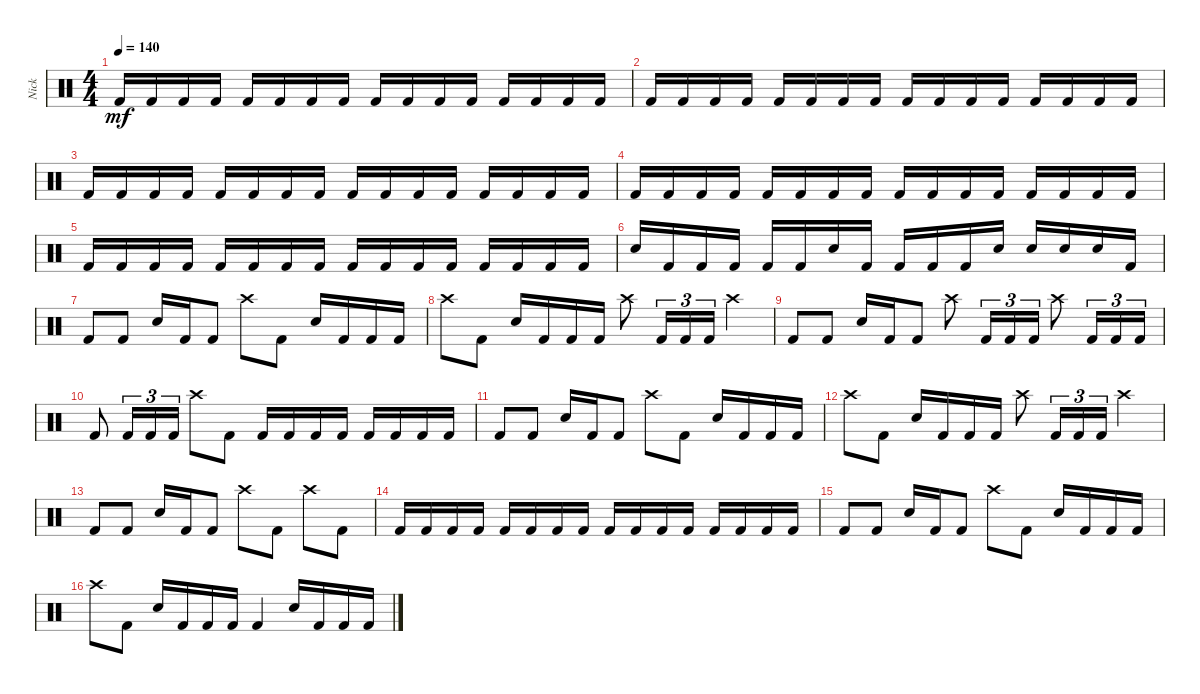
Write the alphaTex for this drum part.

\track ("Nick " "Nick ") {instrument percussion}
\staff {score}
\articulation defaults
\ts (4 4)
\tempo 140
\clef neutral
\ks c "Kick (hit) 2".16{dy mf} "Kick (hit) 2".16 "Kick (hit) 2".16 "Kick (hit) 2".16 "Kick (hit) 2".16 "Kick (hit) 2".16 "Kick (hit) 2".16 "Kick (hit) 2".16 "Kick (hit) 2".16 "Kick (hit) 2".16 "Kick (hit) 2".16 "Kick (hit) 2".16 "Kick (hit) 2".16 "Kick (hit) 2".16 "Kick (hit) 2".16 "Kick (hit) 2".16
|
"Kick (hit) 2".16 "Kick (hit) 2".16 "Kick (hit) 2".16 "Kick (hit) 2".16 "Kick (hit) 2".16 "Kick (hit) 2".16 "Kick (hit) 2".16 "Kick (hit) 2".16 "Kick (hit) 2".16 "Kick (hit) 2".16 "Kick (hit) 2".16 "Kick (hit) 2".16 "Kick (hit) 2".16 "Kick (hit) 2".16 "Kick (hit) 2".16 "Kick (hit) 2".16 |
"Kick (hit) 2".16 "Kick (hit) 2".16 "Kick (hit) 2".16 "Kick (hit) 2".16 "Kick (hit) 2".16 "Kick (hit) 2".16 "Kick (hit) 2".16 "Kick (hit) 2".16 "Kick (hit) 2".16 "Kick (hit) 2".16 "Kick (hit) 2".16 "Kick (hit) 2".16 "Kick (hit) 2".16 "Kick (hit) 2".16 "Kick (hit) 2".16 "Kick (hit) 2".16 |
"Kick (hit) 2".16 "Kick (hit) 2".16 "Kick (hit) 2".16 "Kick (hit) 2".16 "Kick (hit) 2".16 "Kick (hit) 2".16 "Kick (hit) 2".16 "Kick (hit) 2".16 "Kick (hit) 2".16 "Kick (hit) 2".16 "Kick (hit) 2".16 "Kick (hit) 2".16 "Kick (hit) 2".16 "Kick (hit) 2".16 "Kick (hit) 2".16 "Kick (hit) 2".16 |
"Kick (hit) 2".16 "Kick (hit) 2".16 "Kick (hit) 2".16 "Kick (hit) 2".16 "Kick (hit) 2".16 "Kick (hit) 2".16 "Kick (hit) 2".16 "Kick (hit) 2".16 "Kick (hit) 2".16 "Kick (hit) 2".16 "Kick (hit) 2".16 "Kick (hit) 2".16 "Kick (hit) 2".16 "Kick (hit) 2".16 "Kick (hit) 2".16 "Kick (hit) 2".16 |
"Snare (hit) 2".16 "Kick (hit) 2".16 "Kick (hit) 2".16 "Kick (hit) 2".16 "Kick (hit) 2".16 "Kick (hit) 2".16 "Snare (hit) 2".16 "Kick (hit) 2".16 "Kick (hit) 2".16 "Kick (hit) 2".16 "Kick (hit) 2".16 "Snare (hit) 2".16 "Snare (hit) 2".16 "Snare (hit) 2".16 "Snare (hit) 2".16 "Kick (hit) 2".16 |
"Kick (hit) 2".8 "Kick (hit) 2".8 "Snare (hit) 2".16 "Kick (hit) 2".16 "Kick (hit) 2".8 "Crash high (hit)".8 "Kick (hit) 2".8 "Snare (hit) 2".16 "Kick (hit) 2".16 "Kick (hit) 2".16 "Kick (hit) 2".16 |
"Crash high (hit)".8 "Kick (hit) 2".8 "Snare (hit) 2".16 "Kick (hit) 2".16 "Kick (hit) 2".16 "Kick (hit) 2".16 "Crash high (hit)".8 "Kick (hit) 2".16{tu (3 2)} "Kick (hit) 2".16{tu (3 2)} "Kick (hit) 2".16{tu (3 2)} "Crash high (hit)".4 |
"Kick (hit) 2".8 "Kick (hit) 2".8 "Snare (hit) 2".16 "Kick (hit) 2".16 "Kick (hit) 2".8 "Crash high (hit)".8 "Kick (hit) 2".16{tu (3 2)} "Kick (hit) 2".16{tu (3 2)} "Kick (hit) 2".16{tu (3 2)} "Crash high (hit)".8 "Kick (hit) 2".16{tu (3 2)} "Kick (hit) 2".16{tu (3 2)} "Kick (hit) 2".16{tu (3 2)} |
"Kick (hit) 2".8 "Kick (hit) 2".16{tu (3 2)} "Kick (hit) 2".16{tu (3 2)} "Kick (hit) 2".16{tu (3 2)} "Crash high (hit)".8 "Kick (hit) 2".8 "Kick (hit) 2".16 "Kick (hit) 2".16 "Kick (hit) 2".16 "Kick (hit) 2".16 "Kick (hit) 2".16 "Kick (hit) 2".16 "Kick (hit) 2".16 "Kick (hit) 2".16 |
"Kick (hit) 2".8 "Kick (hit) 2".8 "Snare (hit) 2".16 "Kick (hit) 2".16 "Kick (hit) 2".8 "Crash high (hit)".8 "Kick (hit) 2".8 "Snare (hit) 2".16 "Kick (hit) 2".16 "Kick (hit) 2".16 "Kick (hit) 2".16 |
"Crash high (hit)".8 "Kick (hit) 2".8 "Snare (hit) 2".16 "Kick (hit) 2".16 "Kick (hit) 2".16 "Kick (hit) 2".16 "Crash high (hit)".8 "Kick (hit) 2".16{tu (3 2)} "Kick (hit) 2".16{tu (3 2)} "Kick (hit) 2".16{tu (3 2)} "Crash high (hit)".4 |
"Kick (hit) 2".8 "Kick (hit) 2".8 "Snare (hit) 2".16 "Kick (hit) 2".16 "Kick (hit) 2".8 "Crash high (hit)".8 "Kick (hit) 2".8 "Crash high (hit)".8 "Kick (hit) 2".8 |
"Kick (hit) 2".16 "Kick (hit) 2".16 "Kick (hit) 2".16 "Kick (hit) 2".16 "Kick (hit) 2".16 "Kick (hit) 2".16 "Kick (hit) 2".16 "Kick (hit) 2".16 "Kick (hit) 2".16 "Kick (hit) 2".16 "Kick (hit) 2".16 "Kick (hit) 2".16 "Kick (hit) 2".16 "Kick (hit) 2".16 "Kick (hit) 2".16 "Kick (hit) 2".16 |
"Kick (hit) 2".8 "Kick (hit) 2".8 "Snare (hit) 2".16 "Kick (hit) 2".16 "Kick (hit) 2".8 "Crash high (hit)".8 "Kick (hit) 2".8 "Snare (hit) 2".16 "Kick (hit) 2".16 "Kick (hit) 2".16 "Kick (hit) 2".16 |
"Crash high (hit)".8 "Kick (hit) 2".8 "Snare (hit) 2".16 "Kick (hit) 2".16 "Kick (hit) 2".16 "Kick (hit) 2".16 "Kick (hit) 2".4 "Snare (hit) 2".16 "Kick (hit) 2".16 "Kick (hit) 2".16 "Kick (hit) 2".16
